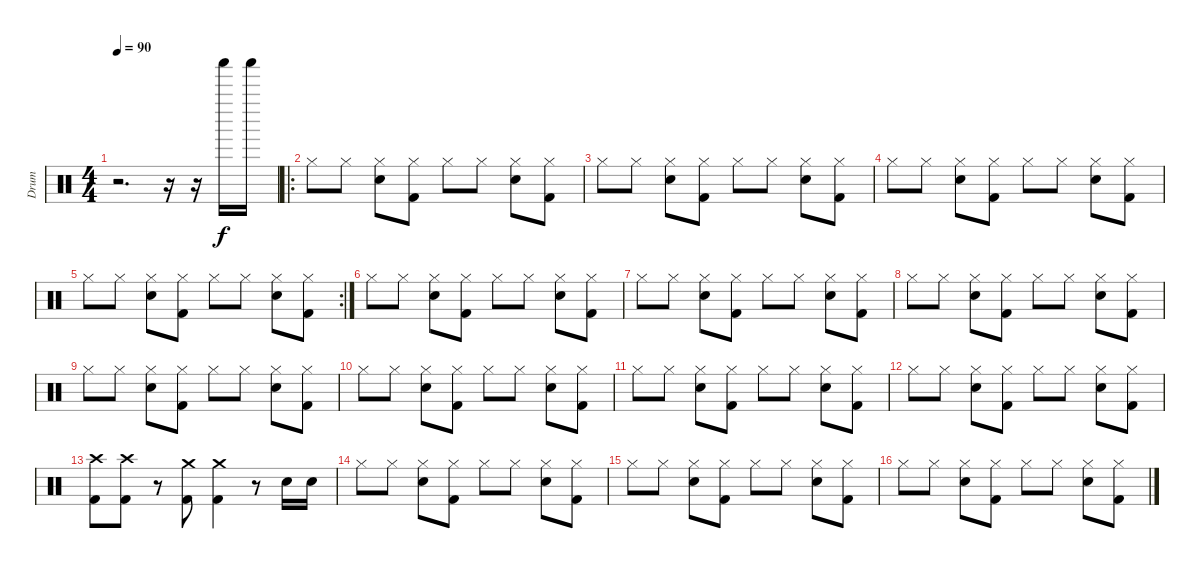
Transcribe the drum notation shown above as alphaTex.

\track ("Drum" "Drum") {instrument percussion}
\staff {score}
\articulation defaults
\ts (4 4)
\tempo 90
\clef neutral
\ks c
r.2{d dy f} r.16 r.16 "Shaker (hit)".16 "Shaker (hit)".16 |
\ro "Hi-Hat (closed)".8 "Hi-Hat (closed)".8
("Hi-Hat (closed)" "Snare (hit) 2").8 ("Hi-Hat (closed)" "Kick (hit) 2").8 "Hi-Hat (closed)".8 "Hi-Hat (closed)".8 ("Hi-Hat (closed)" "Snare (hit) 2").8 ("Hi-Hat (closed)" "Kick (hit) 2").8 |
"Hi-Hat (closed)".8 "Hi-Hat (closed)".8 ("Hi-Hat (closed)" "Snare (hit) 2").8 ("Hi-Hat (closed)" "Kick (hit) 2").8 "Hi-Hat (closed)".8 "Hi-Hat (closed)".8 ("Hi-Hat (closed)" "Snare (hit) 2").8 ("Hi-Hat (closed)" "Kick (hit) 2").8 |
"Hi-Hat (closed)".8 "Hi-Hat (closed)".8 ("Hi-Hat (closed)" "Snare (hit) 2").8 ("Hi-Hat (closed)" "Kick (hit) 2").8 "Hi-Hat (closed)".8 "Hi-Hat (closed)".8 ("Hi-Hat (closed)" "Snare (hit) 2").8 ("Hi-Hat (closed)" "Kick (hit) 2").8 |
\rc 2 "Hi-Hat (closed)".8 "Hi-Hat (closed)".8
("Hi-Hat (closed)" "Snare (hit) 2").8 ("Hi-Hat (closed)" "Kick (hit) 2").8 "Hi-Hat (closed)".8 "Hi-Hat (closed)".8 ("Hi-Hat (closed)" "Snare (hit) 2").8 ("Hi-Hat (closed)" "Kick (hit) 2").8 |
"Hi-Hat (closed)".8 "Hi-Hat (closed)".8 ("Hi-Hat (closed)" "Snare (hit) 2").8 ("Hi-Hat (closed)" "Kick (hit) 2").8 "Hi-Hat (closed)".8 "Hi-Hat (closed)".8 ("Hi-Hat (closed)" "Snare (hit) 2").8 ("Hi-Hat (closed)" "Kick (hit) 2").8 |
"Hi-Hat (closed)".8 "Hi-Hat (closed)".8 ("Hi-Hat (closed)" "Snare (hit) 2").8 ("Hi-Hat (closed)" "Kick (hit) 2").8 "Hi-Hat (closed)".8 "Hi-Hat (closed)".8 ("Hi-Hat (closed)" "Snare (hit) 2").8 ("Hi-Hat (closed)" "Kick (hit) 2").8 |
"Hi-Hat (closed)".8 "Hi-Hat (closed)".8 ("Hi-Hat (closed)" "Snare (hit) 2").8 ("Hi-Hat (closed)" "Kick (hit) 2").8 "Hi-Hat (closed)".8 "Hi-Hat (closed)".8 ("Hi-Hat (closed)" "Snare (hit) 2").8 ("Hi-Hat (closed)" "Kick (hit) 2").8 |
"Hi-Hat (closed)".8 "Hi-Hat (closed)".8 ("Hi-Hat (closed)" "Snare (hit) 2").8 ("Hi-Hat (closed)" "Kick (hit) 2").8 "Hi-Hat (closed)".8 "Hi-Hat (closed)".8 ("Hi-Hat (closed)" "Snare (hit) 2").8 ("Hi-Hat (closed)" "Kick (hit) 2").8 |
"Hi-Hat (closed)".8 "Hi-Hat (closed)".8 ("Hi-Hat (closed)" "Snare (hit) 2").8 ("Hi-Hat (closed)" "Kick (hit) 2").8 "Hi-Hat (closed)".8 "Hi-Hat (closed)".8 ("Hi-Hat (closed)" "Snare (hit) 2").8 ("Hi-Hat (closed)" "Kick (hit) 2").8 |
"Hi-Hat (closed)".8 "Hi-Hat (closed)".8 ("Hi-Hat (closed)" "Snare (hit) 2").8 ("Hi-Hat (closed)" "Kick (hit) 2").8 "Hi-Hat (closed)".8 "Hi-Hat (closed)".8 ("Hi-Hat (closed)" "Snare (hit) 2").8 ("Hi-Hat (closed)" "Kick (hit) 2").8 |
"Hi-Hat (closed)".8 "Hi-Hat (closed)".8 ("Hi-Hat (closed)" "Snare (hit) 2").8 ("Hi-Hat (closed)" "Kick (hit) 2").8 "Hi-Hat (closed)".8 "Hi-Hat (closed)".8 ("Hi-Hat (closed)" "Snare (hit) 2").8 ("Hi-Hat (closed)" "Kick (hit) 2").8 |
("Crash high (hit)" "Kick (hit) 2").8 ("Crash high (hit)" "Kick (hit) 2").8 r.8 ("Crash medium (hit)" "Kick (hit) 2").8 ("Crash medium (hit)" "Kick (hit) 2").4 r.8 "Snare (hit) 2".16 "Snare (hit) 2".16 |
"Hi-Hat (closed)".8 "Hi-Hat (closed)".8 ("Hi-Hat (closed)" "Snare (hit) 2").8 ("Hi-Hat (closed)" "Kick (hit) 2").8 "Hi-Hat (closed)".8 "Hi-Hat (closed)".8 ("Hi-Hat (closed)" "Snare (hit) 2").8 ("Hi-Hat (closed)" "Kick (hit) 2").8 |
"Hi-Hat (closed)".8 "Hi-Hat (closed)".8 ("Hi-Hat (closed)" "Snare (hit) 2").8 ("Hi-Hat (closed)" "Kick (hit) 2").8 "Hi-Hat (closed)".8 "Hi-Hat (closed)".8 ("Hi-Hat (closed)" "Snare (hit) 2").8 ("Hi-Hat (closed)" "Kick (hit) 2").8 |
"Hi-Hat (closed)".8 "Hi-Hat (closed)".8 ("Hi-Hat (closed)" "Snare (hit) 2").8 ("Hi-Hat (closed)" "Kick (hit) 2").8 "Hi-Hat (closed)".8 "Hi-Hat (closed)".8 ("Hi-Hat (closed)" "Snare (hit) 2").8 ("Hi-Hat (closed)" "Kick (hit) 2").8
